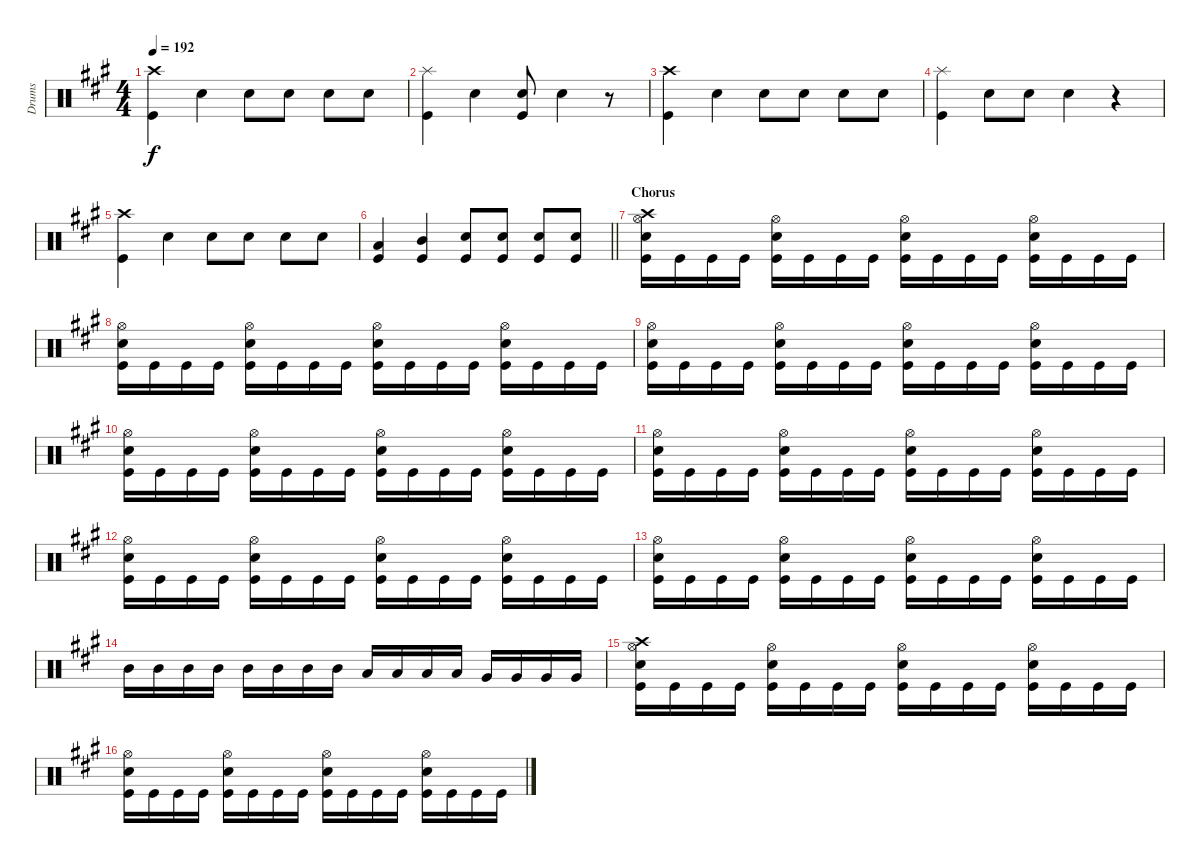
\track ("Drums" "Drums") {instrument percussion}
\staff {score}
\articulation defaults
\ts (4 4)
\tempo 192
\clef neutral
\ks f#minor
("Crash high (hit)" "Kick (hit)").4{dy f} "Snare (hit) 2".4 "Snare (hit) 2".8 "Snare (hit) 2".8 "Snare (hit) 2".8 "Snare (hit) 2".8 |
("Splash (hit)" "Kick (hit)").4 "Snare (hit) 2"{tr (38 16)}.4 ("Snare (hit) 2" "Kick (hit)").8 "Snare (hit) 2".4 r.8 |
("Crash high (hit)" "Kick (hit)").4 "Snare (hit) 2".4 "Snare (hit) 2".8 "Snare (hit) 2".8 "Snare (hit) 2".8 "Snare (hit) 2".8 |
("Splash (hit)" "Kick (hit)").4 "Snare (hit) 2".8 "Snare (hit) 2".8 "Snare (hit) 2".4 r.4 |
("Crash high (hit)" "Kick (hit)").4 "Snare (hit) 2"{tr (38 16)}.4 "Snare (hit) 2".8 "Snare (hit) 2".8 "Snare (hit) 2".8 "Snare (hit) 2".8 |
\barLineRight lightlight
("Low Tom (hit)" "Kick (hit)").4 ("Mid Tom (hit)" "Kick (hit)").4 ("Snare (hit) 2" "Kick (hit)").8 ("Snare (hit) 2" "Kick (hit)").8 ("Snare (hit) 2" "Kick (hit)").8 ("Snare (hit) 2" "Kick (hit)").8 |
\section ("" "Chorus")
("Crash high (hit)" "Hi-Hat (open)" "Snare (hit) 2" "Kick (hit)").16 "Kick (hit)".16 "Kick (hit)".16 "Kick (hit)".16 ("Hi-Hat (open)" "Snare (hit) 2" "Kick (hit)").16 "Kick (hit)".16 "Kick (hit)".16 "Kick (hit)".16 ("Hi-Hat (open)" "Snare (hit) 2" "Kick (hit)").16 "Kick (hit)".16 "Kick (hit)".16 "Kick (hit)".16 ("Hi-Hat (open)" "Snare (hit) 2" "Kick (hit)").16 "Kick (hit)".16 "Kick (hit)".16 "Kick (hit)".16 |
("Hi-Hat (open)" "Snare (hit) 2" "Kick (hit)").16 "Kick (hit)".16 "Kick (hit)".16 "Kick (hit)".16 ("Hi-Hat (open)" "Snare (hit) 2" "Kick (hit)").16 "Kick (hit)".16 "Kick (hit)".16 "Kick (hit)".16 ("Hi-Hat (open)" "Snare (hit) 2" "Kick (hit)").16 "Kick (hit)".16 "Kick (hit)".16 "Kick (hit)".16 ("Hi-Hat (open)" "Snare (hit) 2" "Kick (hit)").16 "Kick (hit)".16 "Kick (hit)".16 "Kick (hit)".16 |
("Hi-Hat (open)" "Snare (hit) 2" "Kick (hit)").16 "Kick (hit)".16 "Kick (hit)".16 "Kick (hit)".16 ("Hi-Hat (open)" "Snare (hit) 2" "Kick (hit)").16 "Kick (hit)".16 "Kick (hit)".16 "Kick (hit)".16 ("Hi-Hat (open)" "Snare (hit) 2" "Kick (hit)").16 "Kick (hit)".16 "Kick (hit)".16 "Kick (hit)".16 ("Hi-Hat (open)" "Snare (hit) 2" "Kick (hit)").16 "Kick (hit)".16 "Kick (hit)".16 "Kick (hit)".16 |
("Hi-Hat (open)" "Snare (hit) 2" "Kick (hit)").16 "Kick (hit)".16 "Kick (hit)".16 "Kick (hit)".16 ("Hi-Hat (open)" "Snare (hit) 2" "Kick (hit)").16 "Kick (hit)".16 "Kick (hit)".16 "Kick (hit)".16 ("Hi-Hat (open)" "Snare (hit) 2" "Kick (hit)").16 "Kick (hit)".16 "Kick (hit)".16 "Kick (hit)".16 ("Hi-Hat (open)" "Snare (hit) 2" "Kick (hit)").16 "Kick (hit)".16 "Kick (hit)".16 "Kick (hit)".16 |
("Hi-Hat (open)" "Snare (hit) 2" "Kick (hit)").16 "Kick (hit)".16 "Kick (hit)".16 "Kick (hit)".16 ("Hi-Hat (open)" "Snare (hit) 2" "Kick (hit)").16 "Kick (hit)".16 "Kick (hit)".16 "Kick (hit)".16 ("Hi-Hat (open)" "Snare (hit) 2" "Kick (hit)").16 "Kick (hit)".16 "Kick (hit)".16 "Kick (hit)".16 ("Hi-Hat (open)" "Snare (hit) 2" "Kick (hit)").16 "Kick (hit)".16 "Kick (hit)".16 "Kick (hit)".16 |
("Hi-Hat (open)" "Snare (hit) 2" "Kick (hit)").16 "Kick (hit)".16 "Kick (hit)".16 "Kick (hit)".16 ("Hi-Hat (open)" "Snare (hit) 2" "Kick (hit)").16 "Kick (hit)".16 "Kick (hit)".16 "Kick (hit)".16 ("Hi-Hat (open)" "Snare (hit) 2" "Kick (hit)").16 "Kick (hit)".16 "Kick (hit)".16 "Kick (hit)".16 ("Hi-Hat (open)" "Snare (hit) 2" "Kick (hit)").16 "Kick (hit)".16 "Kick (hit)".16 "Kick (hit)".16 |
("Hi-Hat (open)" "Snare (hit) 2" "Kick (hit)").16 "Kick (hit)".16 "Kick (hit)".16 "Kick (hit)".16 ("Hi-Hat (open)" "Snare (hit) 2" "Kick (hit)").16 "Kick (hit)".16 "Kick (hit)".16 "Kick (hit)".16 ("Hi-Hat (open)" "Snare (hit) 2" "Kick (hit)").16 "Kick (hit)".16 "Kick (hit)".16 "Kick (hit)".16 ("Hi-Hat (open)" "Snare (hit) 2" "Kick (hit)").16 "Kick (hit)".16 "Kick (hit)".16 "Kick (hit)".16 |
"Mid Tom (hit)".16 "Mid Tom (hit)".16 "Mid Tom (hit)".16 "Mid Tom (hit)".16 "Mid Tom (hit)".16 "Mid Tom (hit)".16 "Mid Tom (hit)".16 "Mid Tom (hit)".16 "Low Tom (hit)".16 "Low Tom (hit)".16 "Low Tom (hit)".16 "Low Tom (hit)".16 "Very Low Tom (hit)".16 "Very Low Tom (hit)".16 "Very Low Tom (hit)".16 "Very Low Tom (hit)".16 |
("Crash high (hit)" "Hi-Hat (open)" "Snare (hit) 2" "Kick (hit)").16 "Kick (hit)".16 "Kick (hit)".16 "Kick (hit)".16 ("Hi-Hat (open)" "Snare (hit) 2" "Kick (hit)").16 "Kick (hit)".16 "Kick (hit)".16 "Kick (hit)".16 ("Hi-Hat (open)" "Snare (hit) 2" "Kick (hit)").16 "Kick (hit)".16 "Kick (hit)".16 "Kick (hit)".16 ("Hi-Hat (open)" "Snare (hit) 2" "Kick (hit)").16 "Kick (hit)".16 "Kick (hit)".16 "Kick (hit)".16 |
("Hi-Hat (open)" "Snare (hit) 2" "Kick (hit)").16 "Kick (hit)".16 "Kick (hit)".16 "Kick (hit)".16 ("Hi-Hat (open)" "Snare (hit) 2" "Kick (hit)").16 "Kick (hit)".16 "Kick (hit)".16 "Kick (hit)".16 ("Hi-Hat (open)" "Snare (hit) 2" "Kick (hit)").16 "Kick (hit)".16 "Kick (hit)".16 "Kick (hit)".16 ("Hi-Hat (open)" "Snare (hit) 2" "Kick (hit)").16 "Kick (hit)".16 "Kick (hit)".16 "Kick (hit)".16
